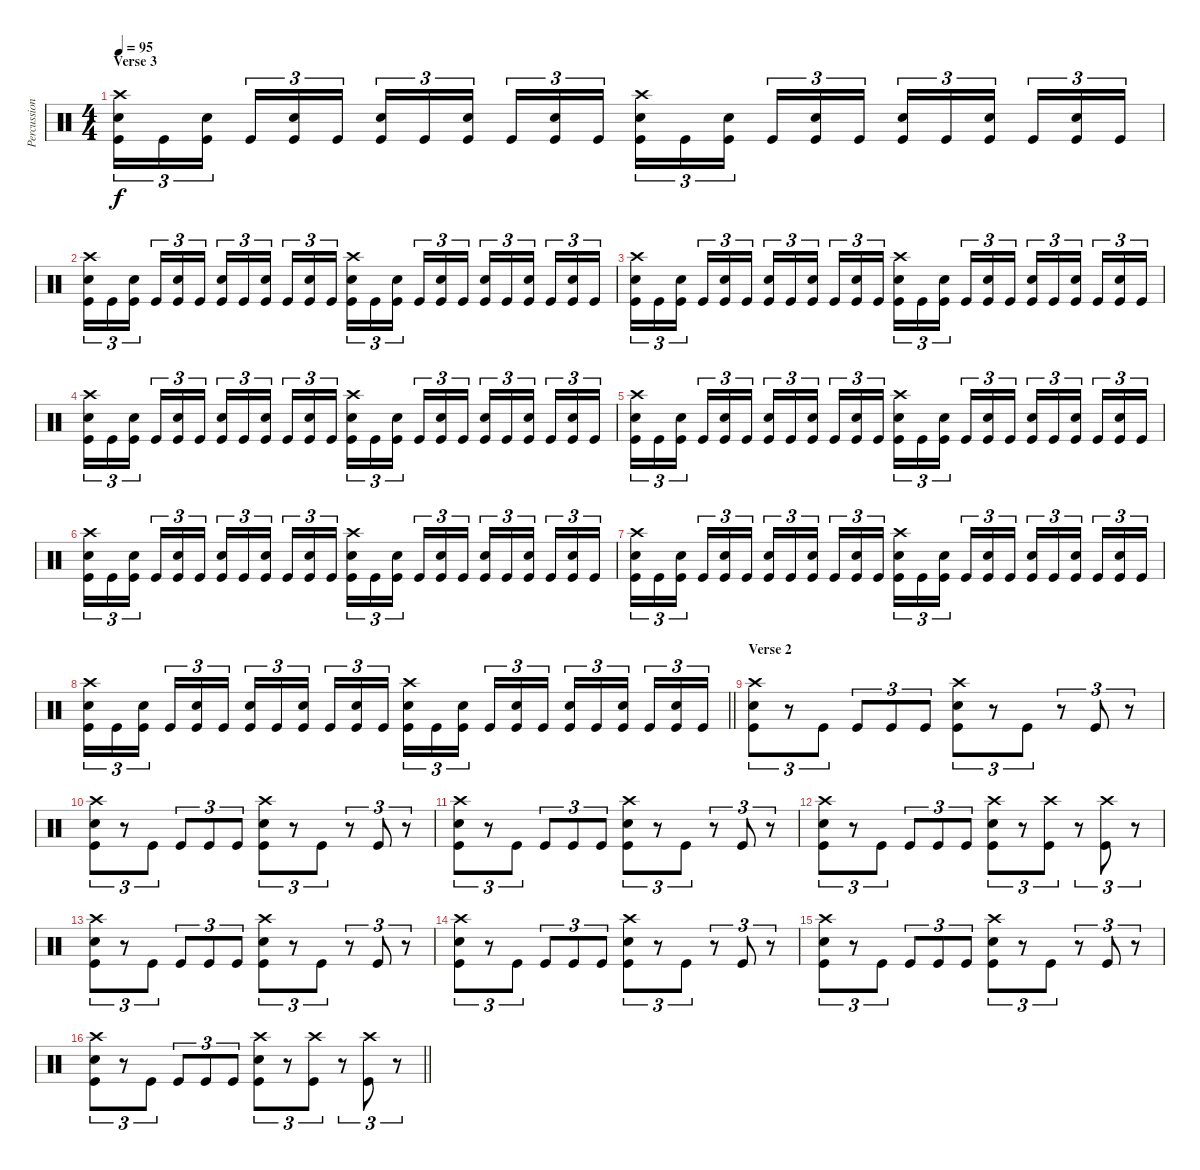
\track ("Percussion" "Percussion") {instrument percussion}
\staff {score}
\articulation defaults
\ts (4 4)
\section ("" "Verse 3")
\tempo 95
\clef neutral
\ks c
("Crash high (hit)" "Snare (hit) 2" "Kick (hit)").16{tu (3 2) dy f} "Kick (hit)".16{tu (3 2)} ("Snare (hit) 2" "Kick (hit)").16{tu (3 2) beam splitsecondary} "Kick (hit)".16{tu (3 2)} ("Snare (hit) 2" "Kick (hit)").16{tu (3 2)} "Kick (hit)".16{tu (3 2)} ("Snare (hit) 2" "Kick (hit)").16{tu (3 2)} "Kick (hit)".16{tu (3 2)} ("Snare (hit) 2" "Kick (hit)").16{tu (3 2) beam splitsecondary} "Kick (hit)".16{tu (3 2)} ("Snare (hit) 2" "Kick (hit)").16{tu (3 2)} "Kick (hit)".16{tu (3 2)} ("Crash high (hit)" "Snare (hit) 2" "Kick (hit)").16{tu (3 2)} "Kick (hit)".16{tu (3 2)} ("Snare (hit) 2" "Kick (hit)").16{tu (3 2) beam splitsecondary} "Kick (hit)".16{tu (3 2)} ("Snare (hit) 2" "Kick (hit)").16{tu (3 2)} "Kick (hit)".16{tu (3 2)} ("Snare (hit) 2" "Kick (hit)").16{tu (3 2)} "Kick (hit)".16{tu (3 2)} ("Snare (hit) 2" "Kick (hit)").16{tu (3 2) beam splitsecondary} "Kick (hit)".16{tu (3 2)} ("Snare (hit) 2" "Kick (hit)").16{tu (3 2)} "Kick (hit)".16{tu (3 2)} |
("Crash high (hit)" "Snare (hit) 2" "Kick (hit)").16{tu (3 2)} "Kick (hit)".16{tu (3 2)} ("Snare (hit) 2" "Kick (hit)").16{tu (3 2) beam splitsecondary} "Kick (hit)".16{tu (3 2)} ("Snare (hit) 2" "Kick (hit)").16{tu (3 2)} "Kick (hit)".16{tu (3 2)} ("Snare (hit) 2" "Kick (hit)").16{tu (3 2)} "Kick (hit)".16{tu (3 2)} ("Snare (hit) 2" "Kick (hit)").16{tu (3 2) beam splitsecondary} "Kick (hit)".16{tu (3 2)} ("Snare (hit) 2" "Kick (hit)").16{tu (3 2)} "Kick (hit)".16{tu (3 2)} ("Crash high (hit)" "Snare (hit) 2" "Kick (hit)").16{tu (3 2)} "Kick (hit)".16{tu (3 2)} ("Snare (hit) 2" "Kick (hit)").16{tu (3 2) beam splitsecondary} "Kick (hit)".16{tu (3 2)} ("Snare (hit) 2" "Kick (hit)").16{tu (3 2)} "Kick (hit)".16{tu (3 2)} ("Snare (hit) 2" "Kick (hit)").16{tu (3 2)} "Kick (hit)".16{tu (3 2)} ("Snare (hit) 2" "Kick (hit)").16{tu (3 2) beam splitsecondary} "Kick (hit)".16{tu (3 2)} ("Snare (hit) 2" "Kick (hit)").16{tu (3 2)} "Kick (hit)".16{tu (3 2)} |
("Crash high (hit)" "Snare (hit) 2" "Kick (hit)").16{tu (3 2)} "Kick (hit)".16{tu (3 2)} ("Snare (hit) 2" "Kick (hit)").16{tu (3 2) beam splitsecondary} "Kick (hit)".16{tu (3 2)} ("Snare (hit) 2" "Kick (hit)").16{tu (3 2)} "Kick (hit)".16{tu (3 2)} ("Snare (hit) 2" "Kick (hit)").16{tu (3 2)} "Kick (hit)".16{tu (3 2)} ("Snare (hit) 2" "Kick (hit)").16{tu (3 2) beam splitsecondary} "Kick (hit)".16{tu (3 2)} ("Snare (hit) 2" "Kick (hit)").16{tu (3 2)} "Kick (hit)".16{tu (3 2)} ("Crash high (hit)" "Snare (hit) 2" "Kick (hit)").16{tu (3 2)} "Kick (hit)".16{tu (3 2)} ("Snare (hit) 2" "Kick (hit)").16{tu (3 2) beam splitsecondary} "Kick (hit)".16{tu (3 2)} ("Snare (hit) 2" "Kick (hit)").16{tu (3 2)} "Kick (hit)".16{tu (3 2)} ("Snare (hit) 2" "Kick (hit)").16{tu (3 2)} "Kick (hit)".16{tu (3 2)} ("Snare (hit) 2" "Kick (hit)").16{tu (3 2) beam splitsecondary} "Kick (hit)".16{tu (3 2)} ("Snare (hit) 2" "Kick (hit)").16{tu (3 2)} "Kick (hit)".16{tu (3 2)} |
("Crash high (hit)" "Snare (hit) 2" "Kick (hit)").16{tu (3 2)} "Kick (hit)".16{tu (3 2)} ("Snare (hit) 2" "Kick (hit)").16{tu (3 2) beam splitsecondary} "Kick (hit)".16{tu (3 2)} ("Snare (hit) 2" "Kick (hit)").16{tu (3 2)} "Kick (hit)".16{tu (3 2)} ("Snare (hit) 2" "Kick (hit)").16{tu (3 2)} "Kick (hit)".16{tu (3 2)} ("Snare (hit) 2" "Kick (hit)").16{tu (3 2) beam splitsecondary} "Kick (hit)".16{tu (3 2)} ("Snare (hit) 2" "Kick (hit)").16{tu (3 2)} "Kick (hit)".16{tu (3 2)} ("Crash high (hit)" "Snare (hit) 2" "Kick (hit)").16{tu (3 2)} "Kick (hit)".16{tu (3 2)} ("Snare (hit) 2" "Kick (hit)").16{tu (3 2) beam splitsecondary} "Kick (hit)".16{tu (3 2)} ("Snare (hit) 2" "Kick (hit)").16{tu (3 2)} "Kick (hit)".16{tu (3 2)} ("Snare (hit) 2" "Kick (hit)").16{tu (3 2)} "Kick (hit)".16{tu (3 2)} ("Snare (hit) 2" "Kick (hit)").16{tu (3 2) beam splitsecondary} "Kick (hit)".16{tu (3 2)} ("Snare (hit) 2" "Kick (hit)").16{tu (3 2)} "Kick (hit)".16{tu (3 2)} |
("Crash high (hit)" "Snare (hit) 2" "Kick (hit)").16{tu (3 2)} "Kick (hit)".16{tu (3 2)} ("Snare (hit) 2" "Kick (hit)").16{tu (3 2) beam splitsecondary} "Kick (hit)".16{tu (3 2)} ("Snare (hit) 2" "Kick (hit)").16{tu (3 2)} "Kick (hit)".16{tu (3 2)} ("Snare (hit) 2" "Kick (hit)").16{tu (3 2)} "Kick (hit)".16{tu (3 2)} ("Snare (hit) 2" "Kick (hit)").16{tu (3 2) beam splitsecondary} "Kick (hit)".16{tu (3 2)} ("Snare (hit) 2" "Kick (hit)").16{tu (3 2)} "Kick (hit)".16{tu (3 2)} ("Crash high (hit)" "Snare (hit) 2" "Kick (hit)").16{tu (3 2)} "Kick (hit)".16{tu (3 2)} ("Snare (hit) 2" "Kick (hit)").16{tu (3 2) beam splitsecondary} "Kick (hit)".16{tu (3 2)} ("Snare (hit) 2" "Kick (hit)").16{tu (3 2)} "Kick (hit)".16{tu (3 2)} ("Snare (hit) 2" "Kick (hit)").16{tu (3 2)} "Kick (hit)".16{tu (3 2)} ("Snare (hit) 2" "Kick (hit)").16{tu (3 2) beam splitsecondary} "Kick (hit)".16{tu (3 2)} ("Snare (hit) 2" "Kick (hit)").16{tu (3 2)} "Kick (hit)".16{tu (3 2)} |
("Crash high (hit)" "Snare (hit) 2" "Kick (hit)").16{tu (3 2)} "Kick (hit)".16{tu (3 2)} ("Snare (hit) 2" "Kick (hit)").16{tu (3 2) beam splitsecondary} "Kick (hit)".16{tu (3 2)} ("Snare (hit) 2" "Kick (hit)").16{tu (3 2)} "Kick (hit)".16{tu (3 2)} ("Snare (hit) 2" "Kick (hit)").16{tu (3 2)} "Kick (hit)".16{tu (3 2)} ("Snare (hit) 2" "Kick (hit)").16{tu (3 2) beam splitsecondary} "Kick (hit)".16{tu (3 2)} ("Snare (hit) 2" "Kick (hit)").16{tu (3 2)} "Kick (hit)".16{tu (3 2)} ("Crash high (hit)" "Snare (hit) 2" "Kick (hit)").16{tu (3 2)} "Kick (hit)".16{tu (3 2)} ("Snare (hit) 2" "Kick (hit)").16{tu (3 2) beam splitsecondary} "Kick (hit)".16{tu (3 2)} ("Snare (hit) 2" "Kick (hit)").16{tu (3 2)} "Kick (hit)".16{tu (3 2)} ("Snare (hit) 2" "Kick (hit)").16{tu (3 2)} "Kick (hit)".16{tu (3 2)} ("Snare (hit) 2" "Kick (hit)").16{tu (3 2) beam splitsecondary} "Kick (hit)".16{tu (3 2)} ("Snare (hit) 2" "Kick (hit)").16{tu (3 2)} "Kick (hit)".16{tu (3 2)} |
("Crash high (hit)" "Snare (hit) 2" "Kick (hit)").16{tu (3 2)} "Kick (hit)".16{tu (3 2)} ("Snare (hit) 2" "Kick (hit)").16{tu (3 2) beam splitsecondary} "Kick (hit)".16{tu (3 2)} ("Snare (hit) 2" "Kick (hit)").16{tu (3 2)} "Kick (hit)".16{tu (3 2)} ("Snare (hit) 2" "Kick (hit)").16{tu (3 2)} "Kick (hit)".16{tu (3 2)} ("Snare (hit) 2" "Kick (hit)").16{tu (3 2) beam splitsecondary} "Kick (hit)".16{tu (3 2)} ("Snare (hit) 2" "Kick (hit)").16{tu (3 2)} "Kick (hit)".16{tu (3 2)} ("Crash high (hit)" "Snare (hit) 2" "Kick (hit)").16{tu (3 2)} "Kick (hit)".16{tu (3 2)} ("Snare (hit) 2" "Kick (hit)").16{tu (3 2) beam splitsecondary} "Kick (hit)".16{tu (3 2)} ("Snare (hit) 2" "Kick (hit)").16{tu (3 2)} "Kick (hit)".16{tu (3 2)} ("Snare (hit) 2" "Kick (hit)").16{tu (3 2)} "Kick (hit)".16{tu (3 2)} ("Snare (hit) 2" "Kick (hit)").16{tu (3 2) beam splitsecondary} "Kick (hit)".16{tu (3 2)} ("Snare (hit) 2" "Kick (hit)").16{tu (3 2)} "Kick (hit)".16{tu (3 2)} |
\barLineRight lightlight
("Crash high (hit)" "Snare (hit) 2" "Kick (hit)").16{tu (3 2)} "Kick (hit)".16{tu (3 2)} ("Snare (hit) 2" "Kick (hit)").16{tu (3 2) beam splitsecondary} "Kick (hit)".16{tu (3 2)} ("Snare (hit) 2" "Kick (hit)").16{tu (3 2)} "Kick (hit)".16{tu (3 2)} ("Snare (hit) 2" "Kick (hit)").16{tu (3 2)} "Kick (hit)".16{tu (3 2)} ("Snare (hit) 2" "Kick (hit)").16{tu (3 2) beam splitsecondary} "Kick (hit)".16{tu (3 2)} ("Snare (hit) 2" "Kick (hit)").16{tu (3 2)} "Kick (hit)".16{tu (3 2)} ("Crash high (hit)" "Snare (hit) 2" "Kick (hit)").16{tu (3 2)} "Kick (hit)".16{tu (3 2)} ("Snare (hit) 2" "Kick (hit)").16{tu (3 2) beam splitsecondary} "Kick (hit)".16{tu (3 2)} ("Snare (hit) 2" "Kick (hit)").16{tu (3 2)} "Kick (hit)".16{tu (3 2)} ("Snare (hit) 2" "Kick (hit)").16{tu (3 2)} "Kick (hit)".16{tu (3 2)} ("Snare (hit) 2" "Kick (hit)").16{tu (3 2) beam splitsecondary} "Kick (hit)".16{tu (3 2)} ("Snare (hit) 2" "Kick (hit)").16{tu (3 2)} "Kick (hit)".16{tu (3 2)} |
\section ("" "Verse 2")
("Crash high (hit)" "Snare (hit) 2" "Kick (hit)").8{tu (3 2)} r.8{tu (3 2)} "Kick (hit)".8{tu (3 2)} "Kick (hit)".8{tu (3 2)} "Kick (hit)".8{tu (3 2)} "Kick (hit)".8{tu (3 2)} ("Crash high (hit)" "Snare (hit) 2" "Kick (hit)").8{tu (3 2)} r.8{tu (3 2)} "Kick (hit)".8{tu (3 2)} r.8{tu (3 2)} "Kick (hit)".8{tu (3 2)} r.8{tu (3 2)} |
("Crash high (hit)" "Snare (hit) 2" "Kick (hit)").8{tu (3 2)} r.8{tu (3 2)} "Kick (hit)".8{tu (3 2)} "Kick (hit)".8{tu (3 2)} "Kick (hit)".8{tu (3 2)} "Kick (hit)".8{tu (3 2)} ("Crash high (hit)" "Snare (hit) 2" "Kick (hit)").8{tu (3 2)} r.8{tu (3 2)} "Kick (hit)".8{tu (3 2)} r.8{tu (3 2)} "Kick (hit)".8{tu (3 2)} r.8{tu (3 2)} |
("Crash high (hit)" "Snare (hit) 2" "Kick (hit)").8{tu (3 2)} r.8{tu (3 2)} "Kick (hit)".8{tu (3 2)} "Kick (hit)".8{tu (3 2)} "Kick (hit)".8{tu (3 2)} "Kick (hit)".8{tu (3 2)} ("Crash high (hit)" "Snare (hit) 2" "Kick (hit)").8{tu (3 2)} r.8{tu (3 2)} "Kick (hit)".8{tu (3 2)} r.8{tu (3 2)} "Kick (hit)".8{tu (3 2)} r.8{tu (3 2)} |
("Crash high (hit)" "Snare (hit) 2" "Kick (hit)").8{tu (3 2)} r.8{tu (3 2)} "Kick (hit)".8{tu (3 2)} "Kick (hit)".8{tu (3 2)} "Kick (hit)".8{tu (3 2)} "Kick (hit)".8{tu (3 2)} ("Crash high (hit)" "Snare (hit) 2" "Kick (hit)").8{tu (3 2)} r.8{tu (3 2)} ("Crash high (hit)" "Kick (hit)").8{tu (3 2)} r.8{tu (3 2)} ("Crash high (hit)" "Kick (hit)").8{tu (3 2)} r.8{tu (3 2)} |
("Crash high (hit)" "Snare (hit) 2" "Kick (hit)").8{tu (3 2)} r.8{tu (3 2)} "Kick (hit)".8{tu (3 2)} "Kick (hit)".8{tu (3 2)} "Kick (hit)".8{tu (3 2)} "Kick (hit)".8{tu (3 2)} ("Crash high (hit)" "Snare (hit) 2" "Kick (hit)").8{tu (3 2)} r.8{tu (3 2)} "Kick (hit)".8{tu (3 2)} r.8{tu (3 2)} "Kick (hit)".8{tu (3 2)} r.8{tu (3 2)} |
("Crash high (hit)" "Snare (hit) 2" "Kick (hit)").8{tu (3 2)} r.8{tu (3 2)} "Kick (hit)".8{tu (3 2)} "Kick (hit)".8{tu (3 2)} "Kick (hit)".8{tu (3 2)} "Kick (hit)".8{tu (3 2)} ("Crash high (hit)" "Snare (hit) 2" "Kick (hit)").8{tu (3 2)} r.8{tu (3 2)} "Kick (hit)".8{tu (3 2)} r.8{tu (3 2)} "Kick (hit)".8{tu (3 2)} r.8{tu (3 2)} |
("Crash high (hit)" "Snare (hit) 2" "Kick (hit)").8{tu (3 2)} r.8{tu (3 2)} "Kick (hit)".8{tu (3 2)} "Kick (hit)".8{tu (3 2)} "Kick (hit)".8{tu (3 2)} "Kick (hit)".8{tu (3 2)} ("Crash high (hit)" "Snare (hit) 2" "Kick (hit)").8{tu (3 2)} r.8{tu (3 2)} "Kick (hit)".8{tu (3 2)} r.8{tu (3 2)} "Kick (hit)".8{tu (3 2)} r.8{tu (3 2)} |
\barLineRight lightlight
("Crash high (hit)" "Snare (hit) 2" "Kick (hit)").8{tu (3 2)} r.8{tu (3 2)} "Kick (hit)".8{tu (3 2)} "Kick (hit)".8{tu (3 2)} "Kick (hit)".8{tu (3 2)} "Kick (hit)".8{tu (3 2)} ("Crash high (hit)" "Snare (hit) 2" "Kick (hit)").8{tu (3 2)} r.8{tu (3 2)} ("Crash high (hit)" "Kick (hit)").8{tu (3 2)} r.8{tu (3 2)} ("Crash high (hit)" "Kick (hit)").8{tu (3 2)} r.8{tu (3 2)}
